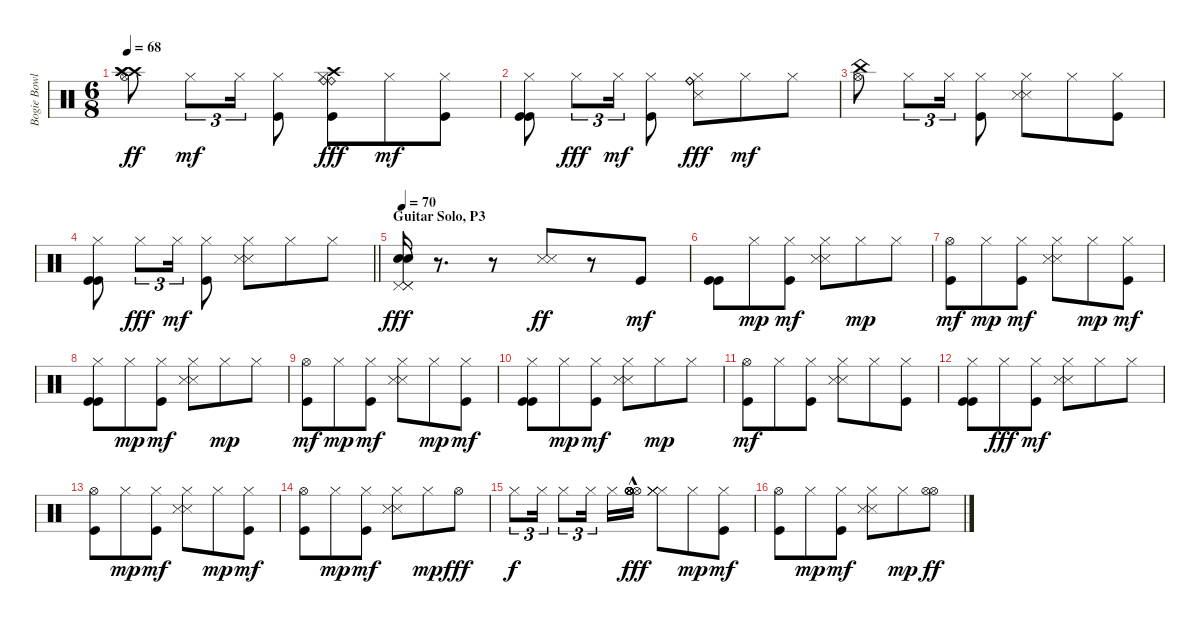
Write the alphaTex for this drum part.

\track ("Bogie Bowles" "Bogie Bowl") {instrument percussion}
\staff {score}
\articulation defaults
\ts (6 8)
\tempo 68
\clef neutral
\ks c
("Hi-Hat (open)" "Crash high (hit)" "Crash high (hit)" "Crash high (hit)").8{dy ff} "Hi-Hat (closed)".8{tu (3 2) dy mf} "Hi-Hat (closed)".16{tu (3 2)} ("Hi-Hat (closed)" "Kick (hit)").8 ("Hi-Hat (closed)" "Kick (hit)" "Crash high (hit)" "Ride (bell)" "Ride (bell)").8{dy fff} "Hi-Hat (closed)".8{dy mf} ("Hi-Hat (closed)" "Kick (hit)").8 |
("Hi-Hat (closed)" "Kick (hit)" "Kick (hit)").8 "Hi-Hat (closed)".8{tu (3 2) dy fff} "Hi-Hat (closed)".16{tu (3 2) dy mf} ("Hi-Hat (closed)" "Kick (hit)").8 ("Hi-Hat (closed)" "Snare (side stick) 3" "Ride (bell)" "Ride (bell)").8{dy fff} "Hi-Hat (closed)".8{dy mf} "Hi-Hat (closed)".8 |
("Hi-Hat (open)" "China (hit)").8 "Hi-Hat (closed)".8{tu (3 2)} "Hi-Hat (closed)".16{tu (3 2)} ("Hi-Hat (closed)" "Kick (hit)").8 ("Hi-Hat (closed)" "Snare (side stick) 3" "Snare (side stick) 3").8 "Hi-Hat (closed)".8 ("Hi-Hat (closed)" "Kick (hit)").8 |
\barLineRight lightlight
("Hi-Hat (closed)" "Kick (hit)" "Kick (hit)").8 "Hi-Hat (closed)".8{tu (3 2) dy fff} "Hi-Hat (closed)".16{tu (3 2) dy mf} ("Hi-Hat (closed)" "Kick (hit)").8 ("Hi-Hat (closed)" "Snare (side stick) 3" "Snare (side stick) 3").8 "Hi-Hat (closed)".8 "Hi-Hat (closed)".8 |
\section ("" "Guitar Solo, P3")
\tempo 70
("Pedal Hi-Hat (hit)" "Pedal Hi-Hat (hit)" "Pedal Hi-Hat (hit)" "Snare (hit) 2" "Snare (hit) 2").16{dy fff volume 8} r.8{d} r.8 ("Snare (side stick) 3" "Snare (side stick) 3").8{dy ff} r.8 "Kick (hit)".8{dy mf} |
("Kick (hit)" "Kick (hit)").8 "Hi-Hat (closed)".8{dy mp} ("Hi-Hat (closed)" "Kick (hit)").8{dy mf} ("Hi-Hat (closed)" "Snare (side stick) 3" "Snare (side stick) 3").8 "Hi-Hat (closed)".8{dy mp} "Hi-Hat (closed)".8 |
("Hi-Hat (open)" "Kick (hit)").8{dy mf} "Hi-Hat (closed)".8{dy mp} ("Hi-Hat (closed)" "Kick (hit)").8{dy mf} ("Hi-Hat (closed)" "Snare (side stick) 3" "Snare (side stick) 3").8 "Hi-Hat (closed)".8{dy mp} ("Hi-Hat (closed)" "Kick (hit)").8{dy mf} |
("Hi-Hat (closed)" "Kick (hit)" "Kick (hit)").8 "Hi-Hat (closed)".8{dy mp} ("Hi-Hat (closed)" "Kick (hit)").8{dy mf} ("Hi-Hat (closed)" "Snare (side stick) 3" "Snare (side stick) 3").8 "Hi-Hat (closed)".8{dy mp} "Hi-Hat (closed)".8 |
("Hi-Hat (open)" "Kick (hit)").8{dy mf} "Hi-Hat (closed)".8{dy mp} ("Hi-Hat (closed)" "Kick (hit)").8{dy mf} ("Hi-Hat (closed)" "Snare (side stick) 3" "Snare (side stick) 3").8 "Hi-Hat (closed)".8{dy mp} ("Hi-Hat (closed)" "Kick (hit)").8{dy mf} |
("Hi-Hat (closed)" "Kick (hit)" "Kick (hit)").8 "Hi-Hat (closed)".8{dy mp} ("Hi-Hat (closed)" "Kick (hit)").8{dy mf} ("Hi-Hat (closed)" "Snare (side stick) 3" "Snare (side stick) 3").8 "Hi-Hat (closed)".8{dy mp} "Hi-Hat (closed)".8 |
("Hi-Hat (open)" "Kick (hit)").8{dy mf} "Hi-Hat (closed)".8 ("Hi-Hat (closed)" "Kick (hit)").8 ("Hi-Hat (closed)" "Snare (side stick) 3" "Snare (side stick) 3").8 "Hi-Hat (closed)".8 ("Hi-Hat (closed)" "Kick (hit)").8 |
("Hi-Hat (closed)" "Kick (hit)" "Kick (hit)").8 "Hi-Hat (closed)".8{dy fff} ("Hi-Hat (closed)" "Kick (hit)").8{dy mf} ("Hi-Hat (closed)" "Snare (side stick) 3" "Snare (side stick) 3").8 "Hi-Hat (closed)".8 "Hi-Hat (closed)".8 |
("Hi-Hat (open)" "Kick (hit)").8{volume 10} "Hi-Hat (closed)".8{dy mp} ("Hi-Hat (closed)" "Kick (hit)").8{dy mf} ("Hi-Hat (closed)" "Snare (side stick) 3" "Snare (side stick) 3").8{volume 11} "Hi-Hat (closed)".8{dy mp} ("Hi-Hat (closed)" "Kick (hit)").8{dy mf} |
("Hi-Hat (open)" "Kick (hit)").8{volume 12} "Hi-Hat (closed)".8{dy mp} ("Hi-Hat (closed)" "Kick (hit)").8{dy mf} ("Hi-Hat (closed)" "Snare (side stick) 3" "Snare (side stick) 3").8{volume 14} "Hi-Hat (closed)".8{dy mp} "Hi-Hat (open)".8{dy fff} |
"Hi-Hat (closed)".8{tu (3 2) dy f volume 16} "Hi-Hat (closed)".16{tu (3 2)} "Hi-Hat (closed)".8{tu (3 2)} "Hi-Hat (closed)".16{tu (3 2) beam splitsecondary} "Hi-Hat (closed)".16 ("Hi-Hat (open)"{hac} "Hi-Hat (open)"{hac} "Hi-Hat (open)"{hac} "Hi-Hat (open)"{hac} "Hi-Hat (open)"{hac} "Hi-Hat (open)").16{dy fff} ("Hi-Hat (closed)" "Hi-Hat (closed)" "Hi-Hat (closed)" "Hi-Hat (closed)").8 "Hi-Hat (closed)".8{dy mp volume 12} ("Hi-Hat (closed)" "Kick (hit)").8{dy mf} |
("Hi-Hat (open)" "Kick (hit)").8 "Hi-Hat (closed)".8{dy mp} ("Hi-Hat (closed)" "Kick (hit)").8{dy mf} ("Hi-Hat (closed)" "Snare (side stick) 3" "Snare (side stick) 3").8 "Hi-Hat (closed)".8{dy mp} ("Hi-Hat (open)" "Hi-Hat (open)").8{dy ff}
